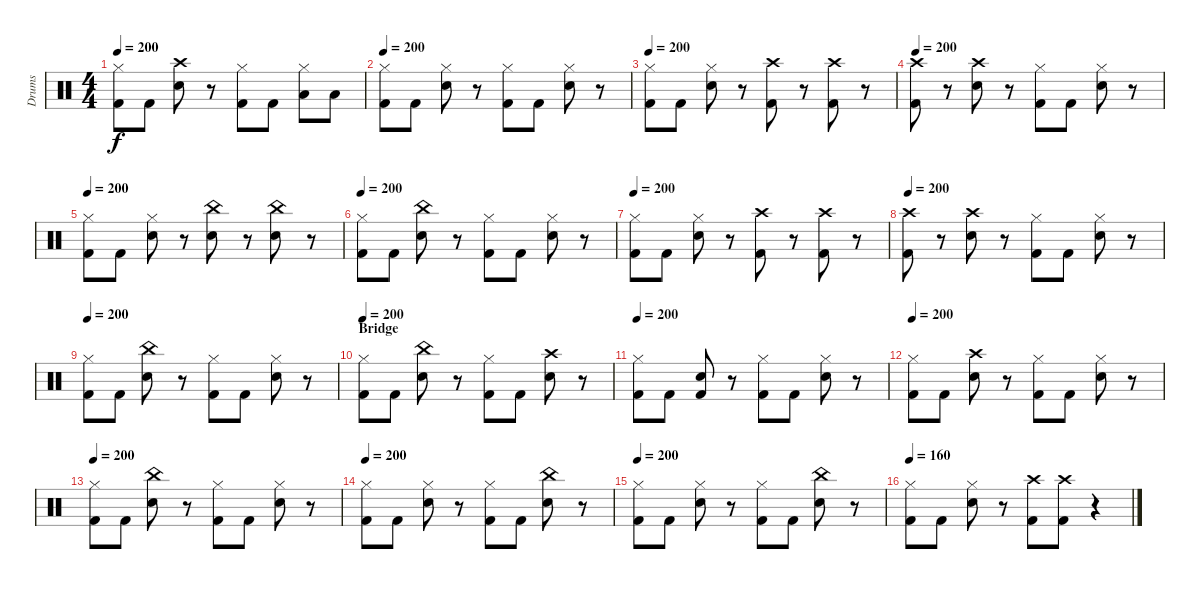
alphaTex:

\track ("Drums" "Drums") {instrument percussion}
\staff {score}
\articulation defaults
\ts (4 4)
\tempo 200
\clef neutral
\ks c
("Kick (hit) 2" "Hi-Hat (closed)").8{dy f} "Kick (hit) 2".8 ("Crash high (hit)" "Snare (hit) 2").8 r.8 ("Hi-Hat (closed)" "Kick (hit) 2").8 "Kick (hit) 2".8 ("Low Tom (hit)" "Hi-Hat (closed)").8 "Low Tom (hit)".8 |
\tempo 200
("Hi-Hat (closed)" "Kick (hit) 2").8 "Kick (hit) 2".8 ("Snare (hit) 2" "Hi-Hat (closed)").8 r.8 ("Hi-Hat (closed)" "Kick (hit) 2").8 "Kick (hit) 2".8 ("Snare (hit) 2" "Hi-Hat (closed)").8 r.8 |
\tempo 200
("Kick (hit) 2" "Hi-Hat (closed)").8 "Kick (hit) 2".8 ("Snare (hit) 2" "Hi-Hat (closed)").8 r.8 ("Crash high (hit)" "Kick (hit) 2").8 r.8 ("Crash high (hit)" "Kick (hit) 2").8 r.8 |
\tempo 200
("Kick (hit) 2" "Crash high (hit)").8 r.8 ("Crash high (hit)" "Snare (hit) 2").8 r.8 ("Hi-Hat (closed)" "Kick (hit) 2").8 "Kick (hit) 2".8 ("Hi-Hat (closed)" "Snare (hit) 2").8 r.8 |
\tempo 200
("Hi-Hat (closed)" "Kick (hit) 2").8 "Kick (hit) 2".8 ("Snare (hit) 2" "Hi-Hat (closed)").8 r.8 ("China (hit)" "Snare (hit) 2").8 r.8 ("China (hit)" "Snare (hit) 2").8 r.8 |
\tempo 200
("Hi-Hat (closed)" "Kick (hit) 2").8 "Kick (hit) 2".8 ("Snare (hit) 2" "China (hit)").8 r.8 ("Hi-Hat (closed)" "Kick (hit) 2").8 "Kick (hit) 2".8 ("Snare (hit) 2" "Hi-Hat (closed)").8 r.8 |
\tempo 200
("Kick (hit) 2" "Hi-Hat (closed)").8 "Kick (hit) 2".8 ("Snare (hit) 2" "Hi-Hat (closed)").8 r.8 ("Crash high (hit)" "Kick (hit) 2").8 r.8 ("Crash high (hit)" "Kick (hit) 2").8 r.8 |
\tempo 200
("Kick (hit) 2" "Crash high (hit)").8 r.8 ("Crash high (hit)" "Snare (hit) 2").8 r.8 ("Hi-Hat (closed)" "Kick (hit) 2").8 "Kick (hit) 2".8 ("Hi-Hat (closed)" "Snare (hit) 2").8 r.8 |
\tempo 200
("Hi-Hat (closed)" "Kick (hit) 2").8 "Kick (hit) 2".8 ("Snare (hit) 2" "China (hit)").8 r.8 ("Hi-Hat (closed)" "Kick (hit) 2").8 "Kick (hit) 2".8 ("Snare (hit) 2" "Hi-Hat (closed)").8 r.8 |
\section ("" "Bridge")
\tempo 200
("Hi-Hat (closed)" "Kick (hit) 2").8 "Kick (hit) 2".8 ("Snare (hit) 2" "China (hit)").8 r.8 ("Hi-Hat (closed)" "Kick (hit) 2").8 "Kick (hit) 2".8 ("Snare (hit) 2" "Crash high (hit)").8 r.8 |
\tempo 200
("Hi-Hat (closed)" "Kick (hit) 2").8 "Kick (hit) 2".8 ("Snare (hit) 2" "Kick (hit) 2").8 r.8 ("Hi-Hat (closed)" "Kick (hit) 2").8 "Kick (hit) 2".8 ("Snare (hit) 2" "Hi-Hat (closed)").8 r.8 |
\tempo 200
("Hi-Hat (closed)" "Kick (hit) 2").8 "Kick (hit) 2".8 ("Snare (hit) 2" "Crash high (hit)").8 r.8 ("Hi-Hat (closed)" "Kick (hit) 2").8 "Kick (hit) 2".8 ("Snare (hit) 2" "Hi-Hat (closed)").8 r.8 |
\tempo 200
("Hi-Hat (closed)" "Kick (hit) 2").8 "Kick (hit) 2".8 ("Snare (hit) 2" "China (hit)").8 r.8 ("Hi-Hat (closed)" "Kick (hit) 2").8 "Kick (hit) 2".8 ("Snare (hit) 2" "Hi-Hat (closed)").8 r.8 |
\tempo 200
("Hi-Hat (closed)" "Kick (hit) 2").8 "Kick (hit) 2".8 ("Snare (hit) 2" "Hi-Hat (closed)").8 r.8 ("Hi-Hat (closed)" "Kick (hit) 2").8 "Kick (hit) 2".8 ("Snare (hit) 2" "China (hit)").8 r.8 |
\tempo 200
("Hi-Hat (closed)" "Kick (hit) 2").8 "Kick (hit) 2".8 ("Snare (hit) 2" "Hi-Hat (closed)").8 r.8 ("Hi-Hat (closed)" "Kick (hit) 2").8 "Kick (hit) 2".8 ("Snare (hit) 2" "China (hit)").8 r.8 |
\tempo 160
("Hi-Hat (closed)" "Kick (hit) 2").8 "Kick (hit) 2".8 ("Snare (hit) 2" "Hi-Hat (closed)").8 r.8 ("Crash high (hit)" "Kick (hit) 2").8 ("Crash high (hit)" "Kick (hit) 2").8 r.4
